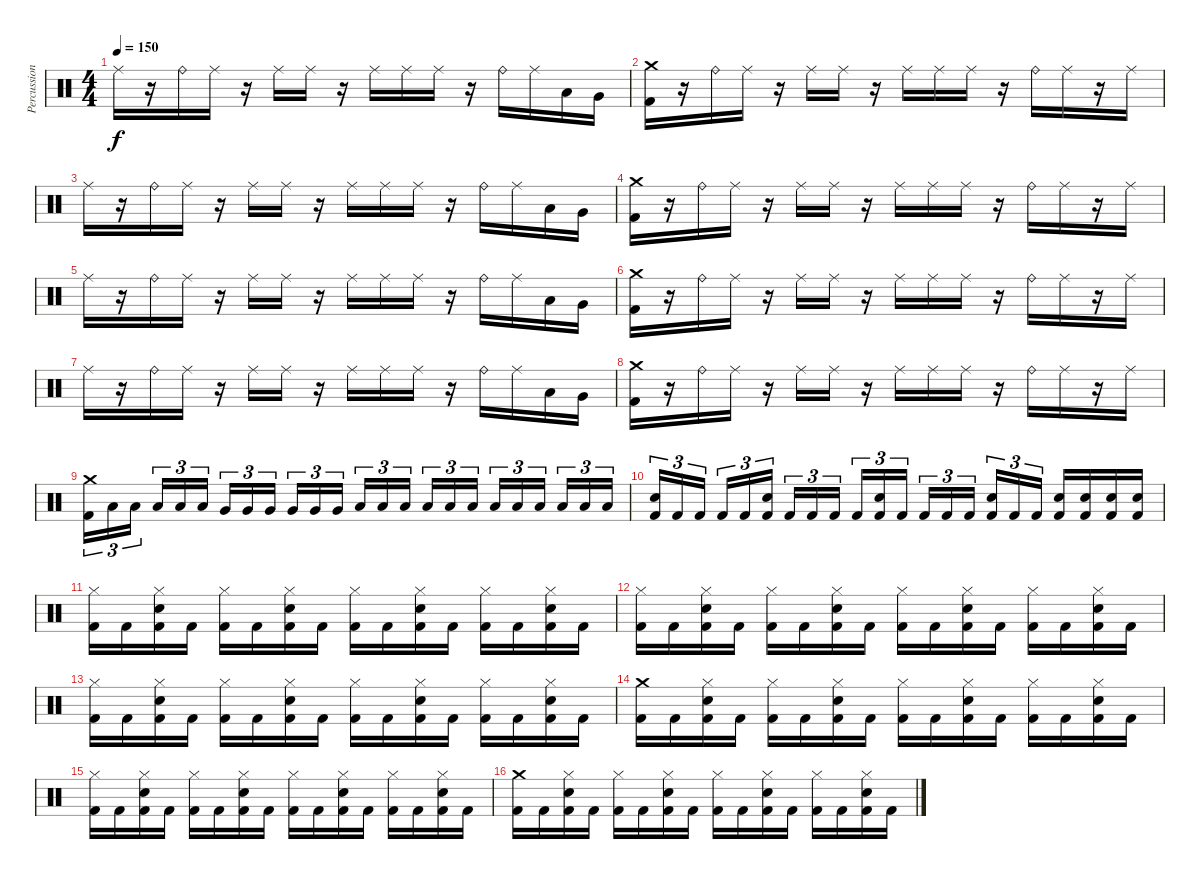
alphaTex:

\track ("Percussioni" "Percussion") {instrument percussion}
\staff {score}
\articulation defaults
\ts (4 4)
\tempo 150
\clef neutral
\ks c "Ride (middle)".16{dy f}
r.16 "Ride (bell)".16 "Ride (middle)".16 r.16 "Ride (middle)".16 "Ride (middle)".16 r.16 "Ride (middle)".16 "Ride (middle)".16 "Ride (middle)".16 r.16 "Ride (bell)".16 "Ride (middle)".16 "Low Tom (hit)".16 "Very Low Tom (hit)".16 |
("Crash medium (hit)" "Kick (hit) 2").16 r.16 "Ride (bell)".16 "Ride (middle)".16 r.16 "Ride (middle)".16 "Ride (middle)".16 r.16 "Ride (middle)".16 "Ride (middle)".16 "Ride (middle)".16 r.16 "Ride (bell)".16 "Ride (middle)".16 r.16 "Ride (middle)".16 |
"Ride (middle)".16 r.16 "Ride (bell)".16 "Ride (middle)".16 r.16 "Ride (middle)".16 "Ride (middle)".16 r.16 "Ride (middle)".16 "Ride (middle)".16 "Ride (middle)".16 r.16 "Ride (bell)".16 "Ride (middle)".16 "Low Tom (hit)".16 "Very Low Tom (hit)".16 |
("Crash medium (hit)" "Kick (hit) 2").16 r.16 "Ride (bell)".16 "Ride (middle)".16 r.16 "Ride (middle)".16 "Ride (middle)".16 r.16 "Ride (middle)".16 "Ride (middle)".16 "Ride (middle)".16 r.16 "Ride (bell)".16 "Ride (middle)".16 r.16 "Ride (middle)".16 |
"Ride (middle)".16 r.16 "Ride (bell)".16 "Ride (middle)".16 r.16 "Ride (middle)".16 "Ride (middle)".16 r.16 "Ride (middle)".16 "Ride (middle)".16 "Ride (middle)".16 r.16 "Ride (bell)".16 "Ride (middle)".16 "Low Tom (hit)".16 "Very Low Tom (hit)".16 |
("Crash medium (hit)" "Kick (hit) 2").16 r.16 "Ride (bell)".16 "Ride (middle)".16 r.16 "Ride (middle)".16 "Ride (middle)".16 r.16 "Ride (middle)".16 "Ride (middle)".16 "Ride (middle)".16 r.16 "Ride (bell)".16 "Ride (middle)".16 r.16 "Ride (middle)".16 |
"Ride (middle)".16 r.16 "Ride (bell)".16 "Ride (middle)".16 r.16 "Ride (middle)".16 "Ride (middle)".16 r.16 "Ride (middle)".16 "Ride (middle)".16 "Ride (middle)".16 r.16 "Ride (bell)".16 "Ride (middle)".16 "Low Tom (hit)".16 "Very Low Tom (hit)".16 |
("Crash medium (hit)" "Kick (hit) 2").16 r.16 "Ride (bell)".16 "Ride (middle)".16 r.16 "Ride (middle)".16 "Ride (middle)".16 r.16 "Ride (middle)".16 "Ride (middle)".16 "Ride (middle)".16 r.16 "Ride (bell)".16 "Ride (middle)".16 r.16 "Ride (middle)".16 |
("Crash medium (hit)" "Kick (hit) 2").16{tu (3 2)} "Low Tom (hit)".16{tu (3 2)} "Low Tom (hit)".16{tu (3 2)} "Low Tom (hit)".16{tu (3 2)} "Low Tom (hit)".16{tu (3 2)} "Low Tom (hit)".16{tu (3 2)} "Very Low Tom (hit)".16{tu (3 2)} "Very Low Tom (hit)".16{tu (3 2)} "Very Low Tom (hit)".16{tu (3 2)} "Very Low Tom (hit)".16{tu (3 2)} "Very Low Tom (hit)".16{tu (3 2)} "Very Low Tom (hit)".16{tu (3 2)} "Low Floor Tom (hit)".16{tu (3 2)} "Low Floor Tom (hit)".16{tu (3 2)} "Low Floor Tom (hit)".16{tu (3 2)} "Low Floor Tom (hit)".16{tu (3 2)} "Low Floor Tom (hit)".16{tu (3 2)} "Low Floor Tom (hit)".16{tu (3 2)} "Low Floor Tom (hit)".16{tu (3 2)} "Low Floor Tom (hit)".16{tu (3 2)} "Low Floor Tom (hit)".16{tu (3 2)} "Low Floor Tom (hit)".16{tu (3 2)} "Low Floor Tom (hit)".16{tu (3 2)} "Low Floor Tom (hit)".16{tu (3 2)} |
("Electric Snare (hit)" "Kick (hit) 2").16{tu (3 2)} "Kick (hit) 2".16{tu (3 2)} "Kick (hit) 2".16{tu (3 2)} "Kick (hit) 2".16{tu (3 2)} "Kick (hit) 2".16{tu (3 2)} ("Electric Snare (hit)" "Kick (hit) 2").16{tu (3 2)} "Kick (hit) 2".16{tu (3 2)} "Kick (hit) 2".16{tu (3 2)} "Kick (hit) 2".16{tu (3 2)} "Kick (hit) 2".16{tu (3 2)} ("Electric Snare (hit)" "Kick (hit) 2").16{tu (3 2)} "Kick (hit) 2".16{tu (3 2)} "Kick (hit) 2".16{tu (3 2)} "Kick (hit) 2".16{tu (3 2)} "Kick (hit) 2".16{tu (3 2)} ("Electric Snare (hit)" "Kick (hit) 2").16{tu (3 2)} "Kick (hit) 2".16{tu (3 2)} "Kick (hit) 2".16{tu (3 2)} ("Electric Snare (hit)" "Kick (hit) 2").16 ("Electric Snare (hit)" "Kick (hit) 2").16 ("Electric Snare (hit)" "Kick (hit) 2").16 ("Electric Snare (hit)" "Kick (hit) 2").16 |
("Hi-Hat (closed)" "Kick (hit) 2").16 "Kick (hit) 2".16 ("Hi-Hat (closed)" "Electric Snare (hit)" "Kick (hit) 2").16 "Kick (hit) 2".16 ("Hi-Hat (closed)" "Kick (hit) 2").16 "Kick (hit) 2".16 ("Hi-Hat (closed)" "Electric Snare (hit)" "Kick (hit) 2").16 "Kick (hit) 2".16 ("Hi-Hat (closed)" "Kick (hit) 2").16 "Kick (hit) 2".16 ("Hi-Hat (closed)" "Electric Snare (hit)" "Kick (hit) 2").16 "Kick (hit) 2".16 ("Hi-Hat (closed)" "Kick (hit) 2").16 "Kick (hit) 2".16 ("Hi-Hat (closed)" "Electric Snare (hit)" "Kick (hit) 2").16 "Kick (hit) 2".16 |
("Hi-Hat (closed)" "Kick (hit) 2").16 "Kick (hit) 2".16 ("Hi-Hat (closed)" "Electric Snare (hit)" "Kick (hit) 2").16 "Kick (hit) 2".16 ("Hi-Hat (closed)" "Kick (hit) 2").16 "Kick (hit) 2".16 ("Hi-Hat (closed)" "Electric Snare (hit)" "Kick (hit) 2").16 "Kick (hit) 2".16 ("Hi-Hat (closed)" "Kick (hit) 2").16 "Kick (hit) 2".16 ("Hi-Hat (closed)" "Electric Snare (hit)" "Kick (hit) 2").16 "Kick (hit) 2".16 ("Hi-Hat (closed)" "Kick (hit) 2").16 "Kick (hit) 2".16 ("Hi-Hat (closed)" "Electric Snare (hit)" "Kick (hit) 2").16 "Kick (hit) 2".16 |
("Hi-Hat (closed)" "Kick (hit) 2").16 "Kick (hit) 2".16 ("Hi-Hat (closed)" "Electric Snare (hit)" "Kick (hit) 2").16 "Kick (hit) 2".16 ("Hi-Hat (closed)" "Kick (hit) 2").16 "Kick (hit) 2".16 ("Hi-Hat (closed)" "Electric Snare (hit)" "Kick (hit) 2").16 "Kick (hit) 2".16 ("Hi-Hat (closed)" "Kick (hit) 2").16 "Kick (hit) 2".16 ("Hi-Hat (closed)" "Electric Snare (hit)" "Kick (hit) 2").16 "Kick (hit) 2".16 ("Hi-Hat (closed)" "Kick (hit) 2").16 "Kick (hit) 2".16 ("Hi-Hat (closed)" "Electric Snare (hit)" "Kick (hit) 2").16 "Kick (hit) 2".16 |
("Crash medium (hit)" "Kick (hit) 2").16 "Kick (hit) 2".16 ("Hi-Hat (closed)" "Electric Snare (hit)" "Kick (hit) 2").16 "Kick (hit) 2".16 ("Hi-Hat (closed)" "Kick (hit) 2").16 "Kick (hit) 2".16 ("Hi-Hat (closed)" "Electric Snare (hit)" "Kick (hit) 2").16 "Kick (hit) 2".16 ("Hi-Hat (closed)" "Kick (hit) 2").16 "Kick (hit) 2".16 ("Hi-Hat (closed)" "Electric Snare (hit)" "Kick (hit) 2").16 "Kick (hit) 2".16 ("Hi-Hat (closed)" "Kick (hit) 2").16 "Kick (hit) 2".16 ("Hi-Hat (closed)" "Electric Snare (hit)" "Kick (hit) 2").16 "Kick (hit) 2".16 |
("Hi-Hat (closed)" "Kick (hit) 2").16 "Kick (hit) 2".16 ("Hi-Hat (closed)" "Electric Snare (hit)" "Kick (hit) 2").16 "Kick (hit) 2".16 ("Hi-Hat (closed)" "Kick (hit) 2").16 "Kick (hit) 2".16 ("Hi-Hat (closed)" "Electric Snare (hit)" "Kick (hit) 2").16 "Kick (hit) 2".16 ("Hi-Hat (closed)" "Kick (hit) 2").16 "Kick (hit) 2".16 ("Hi-Hat (closed)" "Electric Snare (hit)" "Kick (hit) 2").16 "Kick (hit) 2".16 ("Hi-Hat (closed)" "Kick (hit) 2").16 "Kick (hit) 2".16 ("Hi-Hat (closed)" "Electric Snare (hit)" "Kick (hit) 2").16 "Kick (hit) 2".16 |
("Crash medium (hit)" "Kick (hit) 2").16 "Kick (hit) 2".16 ("Hi-Hat (closed)" "Electric Snare (hit)" "Kick (hit) 2").16 "Kick (hit) 2".16 ("Hi-Hat (closed)" "Kick (hit) 2").16 "Kick (hit) 2".16 ("Hi-Hat (closed)" "Electric Snare (hit)" "Kick (hit) 2").16 "Kick (hit) 2".16 ("Hi-Hat (closed)" "Kick (hit) 2").16 "Kick (hit) 2".16 ("Hi-Hat (closed)" "Electric Snare (hit)" "Kick (hit) 2").16 "Kick (hit) 2".16 ("Hi-Hat (closed)" "Kick (hit) 2").16 "Kick (hit) 2".16 ("Hi-Hat (closed)" "Electric Snare (hit)" "Kick (hit) 2").16 "Kick (hit) 2".16
